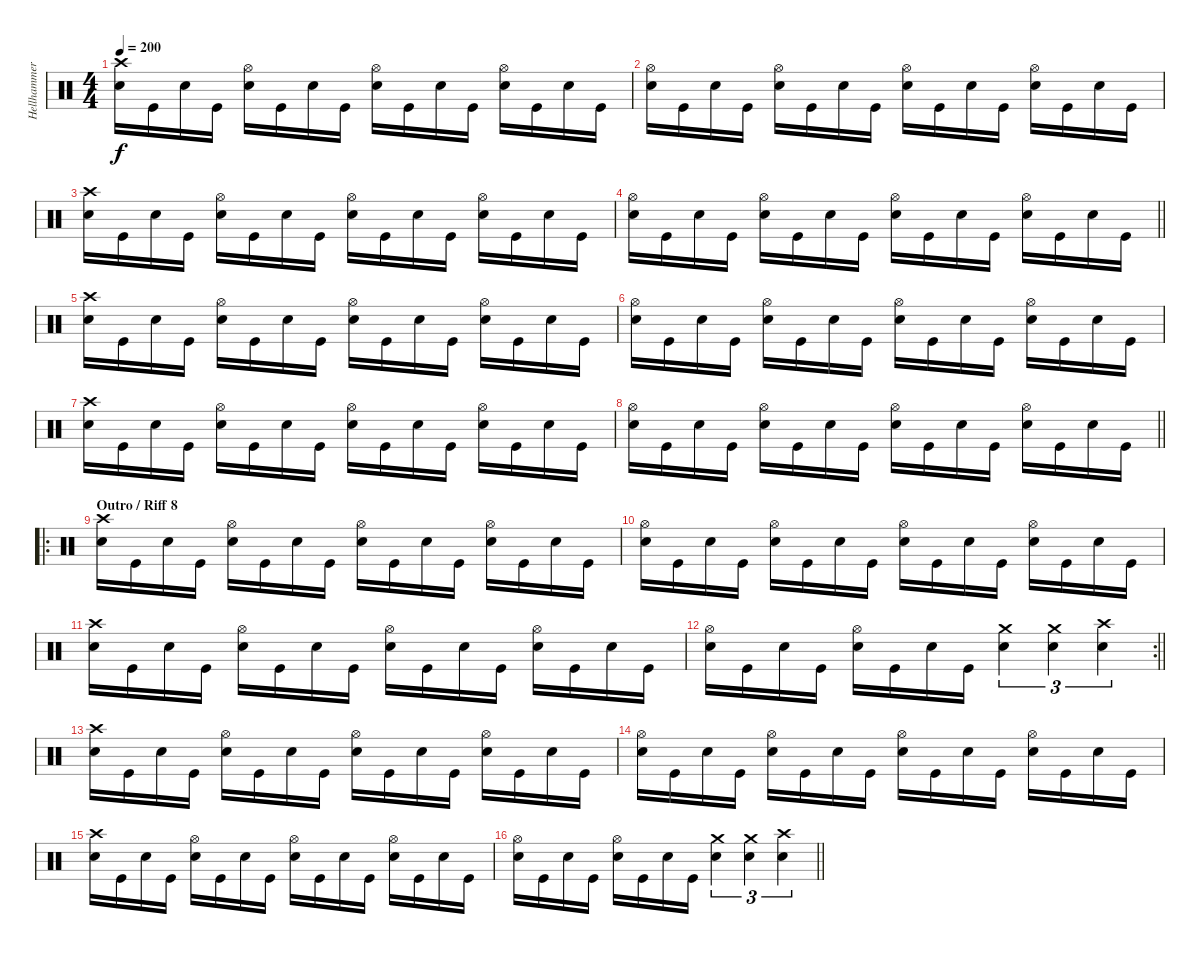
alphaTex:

\track ("Hellhammer" "Hellhammer") {instrument percussion}
\staff {score}
\articulation defaults
\ts (4 4)
\tempo 200
\clef neutral
\ks c
("Crash high (hit)" "Snare (hit) 2").16{dy f} "Kick (hit)".16 "Snare (hit) 2".16 "Kick (hit)".16 ("Hi-Hat (open)" "Snare (hit) 2").16 "Kick (hit)".16 "Snare (hit) 2".16 "Kick (hit)".16 ("Hi-Hat (open)" "Snare (hit) 2").16 "Kick (hit)".16 "Snare (hit) 2".16 "Kick (hit)".16 ("Hi-Hat (open)" "Snare (hit) 2").16 "Kick (hit)".16 "Snare (hit) 2".16 "Kick (hit)".16 |
("Hi-Hat (open)" "Snare (hit) 2").16 "Kick (hit)".16 "Snare (hit) 2".16 "Kick (hit)".16 ("Hi-Hat (open)" "Snare (hit) 2").16 "Kick (hit)".16 "Snare (hit) 2".16 "Kick (hit)".16 ("Hi-Hat (open)" "Snare (hit) 2").16 "Kick (hit)".16 "Snare (hit) 2".16 "Kick (hit)".16 ("Hi-Hat (open)" "Snare (hit) 2").16 "Kick (hit)".16 "Snare (hit) 2".16 "Kick (hit)".16 |
("Crash high (hit)" "Snare (hit) 2").16 "Kick (hit)".16 "Snare (hit) 2".16 "Kick (hit)".16 ("Hi-Hat (open)" "Snare (hit) 2").16 "Kick (hit)".16 "Snare (hit) 2".16 "Kick (hit)".16 ("Hi-Hat (open)" "Snare (hit) 2").16 "Kick (hit)".16 "Snare (hit) 2".16 "Kick (hit)".16 ("Hi-Hat (open)" "Snare (hit) 2").16 "Kick (hit)".16 "Snare (hit) 2".16 "Kick (hit)".16 |
\barLineRight lightlight
("Hi-Hat (open)" "Snare (hit) 2").16 "Kick (hit)".16 "Snare (hit) 2".16 "Kick (hit)".16 ("Hi-Hat (open)" "Snare (hit) 2").16 "Kick (hit)".16 "Snare (hit) 2".16 "Kick (hit)".16 ("Hi-Hat (open)" "Snare (hit) 2").16 "Kick (hit)".16 "Snare (hit) 2".16 "Kick (hit)".16 ("Hi-Hat (open)" "Snare (hit) 2").16 "Kick (hit)".16 "Snare (hit) 2".16 "Kick (hit)".16 |
("Crash high (hit)" "Snare (hit) 2").16 "Kick (hit)".16 "Snare (hit) 2".16 "Kick (hit)".16 ("Hi-Hat (open)" "Snare (hit) 2").16 "Kick (hit)".16 "Snare (hit) 2".16 "Kick (hit)".16 ("Hi-Hat (open)" "Snare (hit) 2").16 "Kick (hit)".16 "Snare (hit) 2".16 "Kick (hit)".16 ("Hi-Hat (open)" "Snare (hit) 2").16 "Kick (hit)".16 "Snare (hit) 2".16 "Kick (hit)".16 |
("Hi-Hat (open)" "Snare (hit) 2").16 "Kick (hit)".16 "Snare (hit) 2".16 "Kick (hit)".16 ("Hi-Hat (open)" "Snare (hit) 2").16 "Kick (hit)".16 "Snare (hit) 2".16 "Kick (hit)".16 ("Hi-Hat (open)" "Snare (hit) 2").16 "Kick (hit)".16 "Snare (hit) 2".16 "Kick (hit)".16 ("Hi-Hat (open)" "Snare (hit) 2").16 "Kick (hit)".16 "Snare (hit) 2".16 "Kick (hit)".16 |
("Crash high (hit)" "Snare (hit) 2").16 "Kick (hit)".16 "Snare (hit) 2".16 "Kick (hit)".16 ("Hi-Hat (open)" "Snare (hit) 2").16 "Kick (hit)".16 "Snare (hit) 2".16 "Kick (hit)".16 ("Hi-Hat (open)" "Snare (hit) 2").16 "Kick (hit)".16 "Snare (hit) 2".16 "Kick (hit)".16 ("Hi-Hat (open)" "Snare (hit) 2").16 "Kick (hit)".16 "Snare (hit) 2".16 "Kick (hit)".16 |
\barLineRight lightlight
("Hi-Hat (open)" "Snare (hit) 2").16 "Kick (hit)".16 "Snare (hit) 2".16 "Kick (hit)".16 ("Hi-Hat (open)" "Snare (hit) 2").16 "Kick (hit)".16 "Snare (hit) 2".16 "Kick (hit)".16 ("Hi-Hat (open)" "Snare (hit) 2").16 "Kick (hit)".16 "Snare (hit) 2".16 "Kick (hit)".16 ("Hi-Hat (open)" "Snare (hit) 2").16 "Kick (hit)".16 "Snare (hit) 2".16 "Kick (hit)".16 |
\ro
\section ("" "Outro / Riff 8")
("Crash high (hit)" "Snare (hit) 2").16 "Kick (hit)".16 "Snare (hit) 2".16 "Kick (hit)".16 ("Hi-Hat (open)" "Snare (hit) 2").16 "Kick (hit)".16 "Snare (hit) 2".16 "Kick (hit)".16 ("Hi-Hat (open)" "Snare (hit) 2").16 "Kick (hit)".16 "Snare (hit) 2".16 "Kick (hit)".16 ("Hi-Hat (open)" "Snare (hit) 2").16 "Kick (hit)".16 "Snare (hit) 2".16 "Kick (hit)".16 |
("Hi-Hat (open)" "Snare (hit) 2").16 "Kick (hit)".16 "Snare (hit) 2".16 "Kick (hit)".16 ("Hi-Hat (open)" "Snare (hit) 2").16 "Kick (hit)".16 "Snare (hit) 2".16 "Kick (hit)".16 ("Hi-Hat (open)" "Snare (hit) 2").16 "Kick (hit)".16 "Snare (hit) 2".16 "Kick (hit)".16 ("Hi-Hat (open)" "Snare (hit) 2").16 "Kick (hit)".16 "Snare (hit) 2".16 "Kick (hit)".16 |
("Crash high (hit)" "Snare (hit) 2").16 "Kick (hit)".16 "Snare (hit) 2".16 "Kick (hit)".16 ("Hi-Hat (open)" "Snare (hit) 2").16 "Kick (hit)".16 "Snare (hit) 2".16 "Kick (hit)".16 ("Hi-Hat (open)" "Snare (hit) 2").16 "Kick (hit)".16 "Snare (hit) 2".16 "Kick (hit)".16 ("Hi-Hat (open)" "Snare (hit) 2").16 "Kick (hit)".16 "Snare (hit) 2".16 "Kick (hit)".16 |
\rc 2
\barLineRight lightlight
("Hi-Hat (open)" "Snare (hit) 2").16 "Kick (hit)".16 "Snare (hit) 2".16 "Kick (hit)".16 ("Hi-Hat (open)" "Snare (hit) 2").16 "Kick (hit)".16 "Snare (hit) 2".16 "Kick (hit)".16 ("Crash medium (hit)" "Snare (hit) 2").4{tu (3 2)} ("Crash medium (hit)" "Snare (hit) 2").4{tu (3 2)} ("Crash high (hit)" "Snare (hit) 2").4{tu (3 2)} |
("Crash high (hit)" "Snare (hit) 2").16 "Kick (hit)".16 "Snare (hit) 2".16 "Kick (hit)".16 ("Hi-Hat (open)" "Snare (hit) 2").16 "Kick (hit)".16 "Snare (hit) 2".16 "Kick (hit)".16 ("Hi-Hat (open)" "Snare (hit) 2").16 "Kick (hit)".16 "Snare (hit) 2".16 "Kick (hit)".16 ("Hi-Hat (open)" "Snare (hit) 2").16 "Kick (hit)".16 "Snare (hit) 2".16 "Kick (hit)".16 |
("Hi-Hat (open)" "Snare (hit) 2").16 "Kick (hit)".16 "Snare (hit) 2".16 "Kick (hit)".16 ("Hi-Hat (open)" "Snare (hit) 2").16 "Kick (hit)".16 "Snare (hit) 2".16 "Kick (hit)".16 ("Hi-Hat (open)" "Snare (hit) 2").16 "Kick (hit)".16 "Snare (hit) 2".16 "Kick (hit)".16 ("Hi-Hat (open)" "Snare (hit) 2").16 "Kick (hit)".16 "Snare (hit) 2".16 "Kick (hit)".16 |
("Crash high (hit)" "Snare (hit) 2").16 "Kick (hit)".16 "Snare (hit) 2".16 "Kick (hit)".16 ("Hi-Hat (open)" "Snare (hit) 2").16 "Kick (hit)".16 "Snare (hit) 2".16 "Kick (hit)".16 ("Hi-Hat (open)" "Snare (hit) 2").16 "Kick (hit)".16 "Snare (hit) 2".16 "Kick (hit)".16 ("Hi-Hat (open)" "Snare (hit) 2").16 "Kick (hit)".16 "Snare (hit) 2".16 "Kick (hit)".16 |
\barLineRight lightlight
("Hi-Hat (open)" "Snare (hit) 2").16 "Kick (hit)".16 "Snare (hit) 2".16 "Kick (hit)".16 ("Hi-Hat (open)" "Snare (hit) 2").16 "Kick (hit)".16 "Snare (hit) 2".16 "Kick (hit)".16 ("Crash medium (hit)" "Snare (hit) 2").4{tu (3 2)} ("Crash medium (hit)" "Snare (hit) 2").4{tu (3 2)} ("Crash high (hit)" "Snare (hit) 2").4{tu (3 2)}
